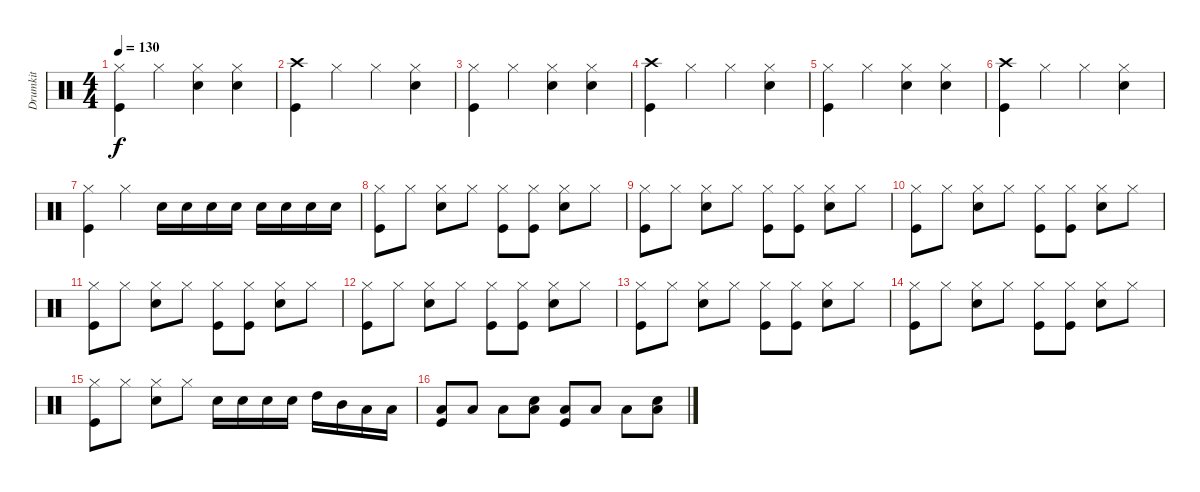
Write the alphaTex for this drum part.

\track ("Drumkit" "Drumkit") {instrument percussion}
\staff {score}
\articulation defaults
\ts (4 4)
\tempo 130
\clef neutral
\ks c
("Hi-Hat (closed)" "Kick (hit)").4{dy f} "Hi-Hat (closed)".4 ("Hi-Hat (closed)" "Snare (hit) 2").4 ("Hi-Hat (closed)" "Snare (hit) 2").4 |
("Crash high (hit)" "Kick (hit)").4 "Hi-Hat (closed)".4 "Hi-Hat (closed)".4 ("Hi-Hat (closed)" "Snare (hit) 2").4 |
("Hi-Hat (closed)" "Kick (hit)").4 "Hi-Hat (closed)".4 ("Hi-Hat (closed)" "Snare (hit) 2").4 ("Hi-Hat (closed)" "Snare (hit) 2").4 |
("Crash high (hit)" "Kick (hit)").4 "Hi-Hat (closed)".4 "Hi-Hat (closed)".4 ("Hi-Hat (closed)" "Snare (hit) 2").4 |
("Hi-Hat (closed)" "Kick (hit)").4 "Hi-Hat (closed)".4 ("Hi-Hat (closed)" "Snare (hit) 2").4 ("Hi-Hat (closed)" "Snare (hit) 2").4 |
("Crash high (hit)" "Kick (hit)").4 "Hi-Hat (closed)".4 "Hi-Hat (closed)".4 ("Hi-Hat (closed)" "Snare (hit) 2").4 |
("Hi-Hat (closed)" "Kick (hit)").4 "Hi-Hat (closed)".4 "Snare (hit) 2".16 "Snare (hit) 2".16 "Snare (hit) 2".16 "Snare (hit) 2".16 "Snare (hit) 2".16 "Snare (hit) 2".16 "Snare (hit) 2".16 "Snare (hit) 2".16 |
("Hi-Hat (closed)" "Kick (hit)").8 "Hi-Hat (closed)".8 ("Hi-Hat (closed)" "Snare (hit) 2").8 "Hi-Hat (closed)".8 ("Hi-Hat (closed)" "Kick (hit)").8 ("Hi-Hat (closed)" "Kick (hit)").8 ("Hi-Hat (closed)" "Snare (hit) 2").8 "Hi-Hat (closed)".8 |
("Hi-Hat (closed)" "Kick (hit)").8 "Hi-Hat (closed)".8 ("Hi-Hat (closed)" "Snare (hit) 2").8 "Hi-Hat (closed)".8 ("Hi-Hat (closed)" "Kick (hit)").8 ("Hi-Hat (closed)" "Kick (hit)").8 ("Hi-Hat (closed)" "Snare (hit) 2").8 "Hi-Hat (closed)".8 |
("Hi-Hat (closed)" "Kick (hit)").8 "Hi-Hat (closed)".8 ("Hi-Hat (closed)" "Snare (hit) 2").8 "Hi-Hat (closed)".8 ("Hi-Hat (closed)" "Kick (hit)").8 ("Hi-Hat (closed)" "Kick (hit)").8 ("Hi-Hat (closed)" "Snare (hit) 2").8 "Hi-Hat (closed)".8 |
("Hi-Hat (closed)" "Kick (hit)").8 "Hi-Hat (closed)".8 ("Hi-Hat (closed)" "Snare (hit) 2").8 "Hi-Hat (closed)".8 ("Hi-Hat (closed)" "Kick (hit)").8 ("Hi-Hat (closed)" "Kick (hit)").8 ("Hi-Hat (closed)" "Snare (hit) 2").8 "Hi-Hat (closed)".8 |
("Hi-Hat (closed)" "Kick (hit)").8 "Hi-Hat (closed)".8 ("Hi-Hat (closed)" "Snare (hit) 2").8 "Hi-Hat (closed)".8 ("Hi-Hat (closed)" "Kick (hit)").8 ("Hi-Hat (closed)" "Kick (hit)").8 ("Hi-Hat (closed)" "Snare (hit) 2").8 "Hi-Hat (closed)".8 |
("Hi-Hat (closed)" "Kick (hit)").8 "Hi-Hat (closed)".8 ("Hi-Hat (closed)" "Snare (hit) 2").8 "Hi-Hat (closed)".8 ("Hi-Hat (closed)" "Kick (hit)").8 ("Hi-Hat (closed)" "Kick (hit)").8 ("Hi-Hat (closed)" "Snare (hit) 2").8 "Hi-Hat (closed)".8 |
("Hi-Hat (closed)" "Kick (hit)").8 "Hi-Hat (closed)".8 ("Hi-Hat (closed)" "Snare (hit) 2").8 "Hi-Hat (closed)".8 ("Hi-Hat (closed)" "Kick (hit)").8 ("Hi-Hat (closed)" "Kick (hit)").8 ("Hi-Hat (closed)" "Snare (hit) 2").8 "Hi-Hat (closed)".8 |
("Hi-Hat (closed)" "Kick (hit)").8 "Hi-Hat (closed)".8 ("Hi-Hat (closed)" "Snare (hit) 2").8 "Hi-Hat (closed)".8 "Snare (hit) 2".16 "Snare (hit) 2".16 "Snare (hit) 2".16 "Snare (hit) 2".16 "High Tom (hit)".16 "Mid Tom (hit)".16 "Low Tom (hit)".16 "Low Tom (hit)".16 |
("Low Tom (hit)" "Kick (hit)").8 "Low Tom (hit)".8 "Low Tom (hit)".8 ("Low Tom (hit)" "Snare (hit) 2").8 ("Low Tom (hit)" "Kick (hit)").8 "Low Tom (hit)".8 "Low Tom (hit)".8 ("Low Tom (hit)" "Snare (hit) 2").8
